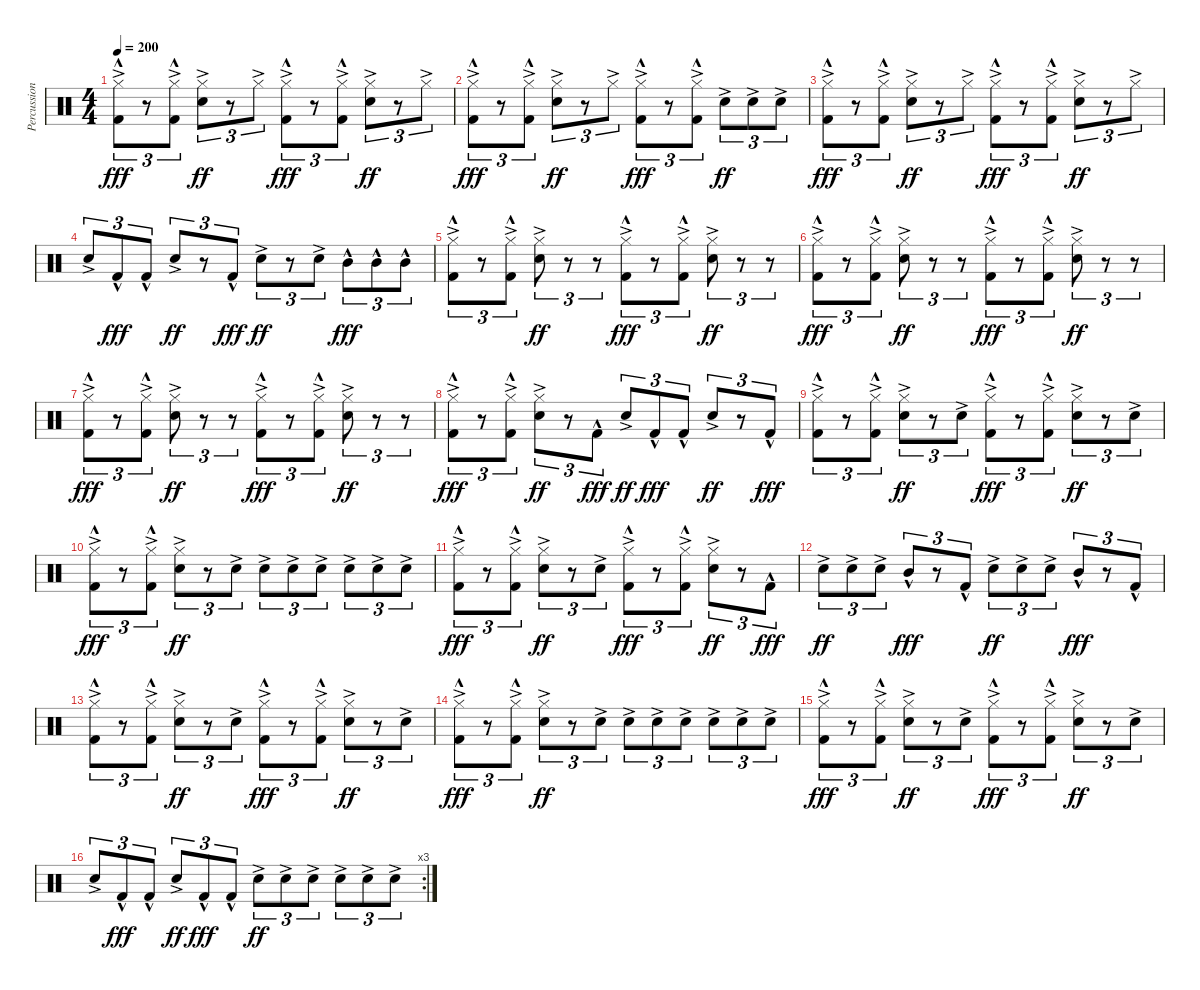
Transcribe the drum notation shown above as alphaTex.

\track ("Percussion" "Percussion") {instrument percussion}
\staff {score}
\articulation defaults
\ts (4 4)
\tempo 200
\clef neutral
\ks c
("Hi-Hat (closed)"{ac} "Kick (hit) 2"{hac}).8{tu (3 2) dy fff} r.8{tu (3 2)} ("Hi-Hat (closed)"{ac} "Kick (hit) 2"{hac}).8{tu (3 2)} ("Hi-Hat (closed)"{ac} "Snare (hit) 2"{ac}).8{tu (3 2) dy ff} r.8{tu (3 2)} "Hi-Hat (closed)"{ac}.8{tu (3 2)} ("Hi-Hat (closed)"{ac} "Kick (hit) 2"{hac}).8{tu (3 2) dy fff} r.8{tu (3 2)} ("Hi-Hat (closed)"{ac} "Kick (hit) 2"{hac}).8{tu (3 2)} ("Hi-Hat (closed)"{ac} "Snare (hit) 2"{ac}).8{tu (3 2) dy ff} r.8{tu (3 2)} "Hi-Hat (closed)"{ac}.8{tu (3 2)} |
("Hi-Hat (closed)"{ac} "Kick (hit) 2"{hac}).8{tu (3 2) dy fff} r.8{tu (3 2)} ("Hi-Hat (closed)"{ac} "Kick (hit) 2"{hac}).8{tu (3 2)} ("Hi-Hat (closed)"{ac} "Snare (hit) 2"{ac}).8{tu (3 2) dy ff} r.8{tu (3 2)} "Hi-Hat (closed)"{ac}.8{tu (3 2)} ("Hi-Hat (closed)"{ac} "Kick (hit) 2"{hac}).8{tu (3 2) dy fff} r.8{tu (3 2)} ("Hi-Hat (closed)"{ac} "Kick (hit) 2"{hac}).8{tu (3 2)} "Snare (hit) 2"{ac}.8{tu (3 2) dy ff} "Snare (hit) 2"{ac}.8{tu (3 2)} "Snare (hit) 2"{ac}.8{tu (3 2)} |
("Hi-Hat (closed)"{ac} "Kick (hit) 2"{hac}).8{tu (3 2) dy fff} r.8{tu (3 2)} ("Hi-Hat (closed)"{ac} "Kick (hit) 2"{hac}).8{tu (3 2)} ("Hi-Hat (closed)"{ac} "Snare (hit) 2"{ac}).8{tu (3 2) dy ff} r.8{tu (3 2)} "Hi-Hat (closed)"{ac}.8{tu (3 2)} ("Hi-Hat (closed)"{ac} "Kick (hit) 2"{hac}).8{tu (3 2) dy fff} r.8{tu (3 2)} ("Hi-Hat (closed)"{ac} "Kick (hit) 2"{hac}).8{tu (3 2)} ("Hi-Hat (closed)"{ac} "Snare (hit) 2"{ac}).8{tu (3 2) dy ff} r.8{tu (3 2)} "Hi-Hat (closed)"{ac}.8{tu (3 2)} |
"Snare (hit) 2"{ac}.8{tu (3 2)} "Kick (hit) 2"{hac}.8{tu (3 2) dy fff} "Kick (hit) 2"{hac}.8{tu (3 2)} "Snare (hit) 2"{ac}.8{tu (3 2) dy ff} r.8{tu (3 2)} "Kick (hit) 2"{hac}.8{tu (3 2) dy fff} "Snare (hit) 2"{ac}.8{tu (3 2) dy ff} r.8{tu (3 2)} "Snare (hit) 2"{ac}.8{tu (3 2)} "Mid Tom (hit)"{hac}.8{tu (3 2) dy fff} "Mid Tom (hit)"{hac}.8{tu (3 2)} "Mid Tom (hit)"{hac}.8{tu (3 2)} |
("Hi-Hat (closed)"{ac} "Kick (hit) 2"{hac}).8{tu (3 2)} r.8{tu (3 2)} ("Hi-Hat (closed)"{ac} "Kick (hit) 2"{hac}).8{tu (3 2)} ("Hi-Hat (closed)"{ac} "Snare (hit) 2"{ac}).8{tu (3 2) dy ff} r.8{tu (3 2)} r.8{tu (3 2)} ("Hi-Hat (closed)"{ac} "Kick (hit) 2"{hac}).8{tu (3 2) dy fff} r.8{tu (3 2)} ("Hi-Hat (closed)"{ac} "Kick (hit) 2"{hac}).8{tu (3 2)} ("Hi-Hat (closed)"{ac} "Snare (hit) 2"{ac}).8{tu (3 2) dy ff} r.8{tu (3 2)} r.8{tu (3 2)} |
("Hi-Hat (closed)"{ac} "Kick (hit) 2"{hac}).8{tu (3 2) dy fff} r.8{tu (3 2)} ("Hi-Hat (closed)"{ac} "Kick (hit) 2"{hac}).8{tu (3 2)} ("Hi-Hat (closed)"{ac} "Snare (hit) 2"{ac}).8{tu (3 2) dy ff} r.8{tu (3 2)} r.8{tu (3 2)} ("Hi-Hat (closed)"{ac} "Kick (hit) 2"{hac}).8{tu (3 2) dy fff} r.8{tu (3 2)} ("Hi-Hat (closed)"{ac} "Kick (hit) 2"{hac}).8{tu (3 2)} ("Hi-Hat (closed)"{ac} "Snare (hit) 2"{ac}).8{tu (3 2) dy ff} r.8{tu (3 2)} r.8{tu (3 2)} |
("Hi-Hat (closed)"{ac} "Kick (hit) 2"{hac}).8{tu (3 2) dy fff} r.8{tu (3 2)} ("Hi-Hat (closed)"{ac} "Kick (hit) 2"{hac}).8{tu (3 2)} ("Hi-Hat (closed)"{ac} "Snare (hit) 2"{ac}).8{tu (3 2) dy ff} r.8{tu (3 2)} r.8{tu (3 2)} ("Hi-Hat (closed)"{ac} "Kick (hit) 2"{hac}).8{tu (3 2) dy fff} r.8{tu (3 2)} ("Hi-Hat (closed)"{ac} "Kick (hit) 2"{hac}).8{tu (3 2)} ("Hi-Hat (closed)"{ac} "Snare (hit) 2"{ac}).8{tu (3 2) dy ff} r.8{tu (3 2)} r.8{tu (3 2)} |
("Hi-Hat (closed)"{ac} "Kick (hit) 2"{hac}).8{tu (3 2) dy fff} r.8{tu (3 2)} ("Hi-Hat (closed)"{ac} "Kick (hit) 2"{hac}).8{tu (3 2)} ("Hi-Hat (closed)"{ac} "Snare (hit) 2"{ac}).8{tu (3 2) dy ff} r.8{tu (3 2)} "Kick (hit) 2"{hac}.8{tu (3 2) dy fff} "Snare (hit) 2"{ac}.8{tu (3 2) dy ff} "Kick (hit) 2"{hac}.8{tu (3 2) dy fff} "Kick (hit) 2"{hac}.8{tu (3 2)} "Snare (hit) 2"{ac}.8{tu (3 2) dy ff} r.8{tu (3 2)} "Kick (hit) 2"{hac}.8{tu (3 2) dy fff} |
("Hi-Hat (closed)"{ac} "Kick (hit) 2"{hac}).8{tu (3 2)} r.8{tu (3 2)} ("Hi-Hat (closed)"{ac} "Kick (hit) 2"{hac}).8{tu (3 2)} ("Hi-Hat (closed)"{ac} "Snare (hit) 2"{ac}).8{tu (3 2) dy ff} r.8{tu (3 2)} "Snare (hit) 2"{ac}.8{tu (3 2)} ("Hi-Hat (closed)"{ac} "Kick (hit) 2"{hac}).8{tu (3 2) dy fff} r.8{tu (3 2)} ("Hi-Hat (closed)"{ac} "Kick (hit) 2"{hac}).8{tu (3 2)} ("Hi-Hat (closed)"{ac} "Snare (hit) 2"{ac}).8{tu (3 2) dy ff} r.8{tu (3 2)} "Snare (hit) 2"{ac}.8{tu (3 2)} |
("Hi-Hat (closed)"{ac} "Kick (hit) 2"{hac}).8{tu (3 2) dy fff} r.8{tu (3 2)} ("Hi-Hat (closed)"{ac} "Kick (hit) 2"{hac}).8{tu (3 2)} ("Hi-Hat (closed)"{ac} "Snare (hit) 2"{ac}).8{tu (3 2) dy ff} r.8{tu (3 2)} "Snare (hit) 2"{ac}.8{tu (3 2)} "Snare (hit) 2"{ac}.8{tu (3 2)} "Snare (hit) 2"{ac}.8{tu (3 2)} "Snare (hit) 2"{ac}.8{tu (3 2)} "Snare (hit) 2"{ac}.8{tu (3 2)} "Snare (hit) 2"{ac}.8{tu (3 2)} "Snare (hit) 2"{ac}.8{tu (3 2)} |
("Hi-Hat (closed)"{ac} "Kick (hit) 2"{hac}).8{tu (3 2) dy fff} r.8{tu (3 2)} ("Hi-Hat (closed)"{ac} "Kick (hit) 2"{hac}).8{tu (3 2)} ("Hi-Hat (closed)"{ac} "Snare (hit) 2"{ac}).8{tu (3 2) dy ff} r.8{tu (3 2)} "Snare (hit) 2"{ac}.8{tu (3 2)} ("Hi-Hat (closed)"{ac} "Kick (hit) 2"{hac}).8{tu (3 2) dy fff} r.8{tu (3 2)} ("Hi-Hat (closed)"{ac} "Kick (hit) 2"{hac}).8{tu (3 2)} ("Hi-Hat (closed)"{ac} "Snare (hit) 2"{ac}).8{tu (3 2) dy ff} r.8{tu (3 2)} "Kick (hit) 2"{hac}.8{tu (3 2) dy fff} |
"Snare (hit) 2"{ac}.8{tu (3 2) dy ff} "Snare (hit) 2"{ac}.8{tu (3 2)} "Snare (hit) 2"{ac}.8{tu (3 2)} "Mid Tom (hit)"{hac}.8{tu (3 2) dy fff} r.8{tu (3 2)} "Kick (hit) 2"{hac}.8{tu (3 2)} "Snare (hit) 2"{ac}.8{tu (3 2) dy ff} "Snare (hit) 2"{ac}.8{tu (3 2)} "Snare (hit) 2"{ac}.8{tu (3 2)} "Mid Tom (hit)"{hac}.8{tu (3 2) dy fff} r.8{tu (3 2)} "Kick (hit) 2"{hac}.8{tu (3 2)} |
("Hi-Hat (closed)"{ac} "Kick (hit) 2"{hac}).8{tu (3 2)} r.8{tu (3 2)} ("Hi-Hat (closed)"{ac} "Kick (hit) 2"{hac}).8{tu (3 2)} ("Hi-Hat (closed)"{ac} "Snare (hit) 2"{ac}).8{tu (3 2) dy ff} r.8{tu (3 2)} "Snare (hit) 2"{ac}.8{tu (3 2)} ("Hi-Hat (closed)"{ac} "Kick (hit) 2"{hac}).8{tu (3 2) dy fff} r.8{tu (3 2)} ("Hi-Hat (closed)"{ac} "Kick (hit) 2"{hac}).8{tu (3 2)} ("Hi-Hat (closed)"{ac} "Snare (hit) 2"{ac}).8{tu (3 2) dy ff} r.8{tu (3 2)} "Snare (hit) 2"{ac}.8{tu (3 2)} |
("Hi-Hat (closed)"{ac} "Kick (hit) 2"{hac}).8{tu (3 2) dy fff} r.8{tu (3 2)} ("Hi-Hat (closed)"{ac} "Kick (hit) 2"{hac}).8{tu (3 2)} ("Hi-Hat (closed)"{ac} "Snare (hit) 2"{ac}).8{tu (3 2) dy ff} r.8{tu (3 2)} "Snare (hit) 2"{ac}.8{tu (3 2)} "Snare (hit) 2"{ac}.8{tu (3 2)} "Snare (hit) 2"{ac}.8{tu (3 2)} "Snare (hit) 2"{ac}.8{tu (3 2)} "Snare (hit) 2"{ac}.8{tu (3 2)} "Snare (hit) 2"{ac}.8{tu (3 2)} "Snare (hit) 2"{ac}.8{tu (3 2)} |
("Hi-Hat (closed)"{ac} "Kick (hit) 2"{hac}).8{tu (3 2) dy fff} r.8{tu (3 2)} ("Hi-Hat (closed)"{ac} "Kick (hit) 2"{hac}).8{tu (3 2)} ("Hi-Hat (closed)"{ac} "Snare (hit) 2"{ac}).8{tu (3 2) dy ff} r.8{tu (3 2)} "Snare (hit) 2"{ac}.8{tu (3 2)} ("Hi-Hat (closed)"{ac} "Kick (hit) 2"{hac}).8{tu (3 2) dy fff} r.8{tu (3 2)} ("Hi-Hat (closed)"{ac} "Kick (hit) 2"{hac}).8{tu (3 2)} ("Hi-Hat (closed)"{ac} "Snare (hit) 2"{ac}).8{tu (3 2) dy ff} r.8{tu (3 2)} "Snare (hit) 2"{ac}.8{tu (3 2)} |
\rc 3 "Snare (hit) 2"{ac}.8{tu (3 2)} "Kick (hit) 2"{hac}.8{tu (3 2) dy fff} "Kick (hit) 2"{hac}.8{tu (3 2)} "Snare (hit) 2"{ac}.8{tu (3 2) dy ff} "Kick (hit) 2"{hac}.8{tu (3 2) dy fff} "Kick (hit) 2"{hac}.8{tu (3 2)} "Snare (hit) 2"{ac}.8{tu (3 2) dy ff} "Snare (hit) 2"{ac}.8{tu (3 2)} "Snare (hit) 2"{ac}.8{tu (3 2)} "Snare (hit) 2"{ac}.8{tu (3 2)} "Snare (hit) 2"{ac}.8{tu (3 2)} "Snare (hit) 2"{ac}.8{tu (3 2)}
